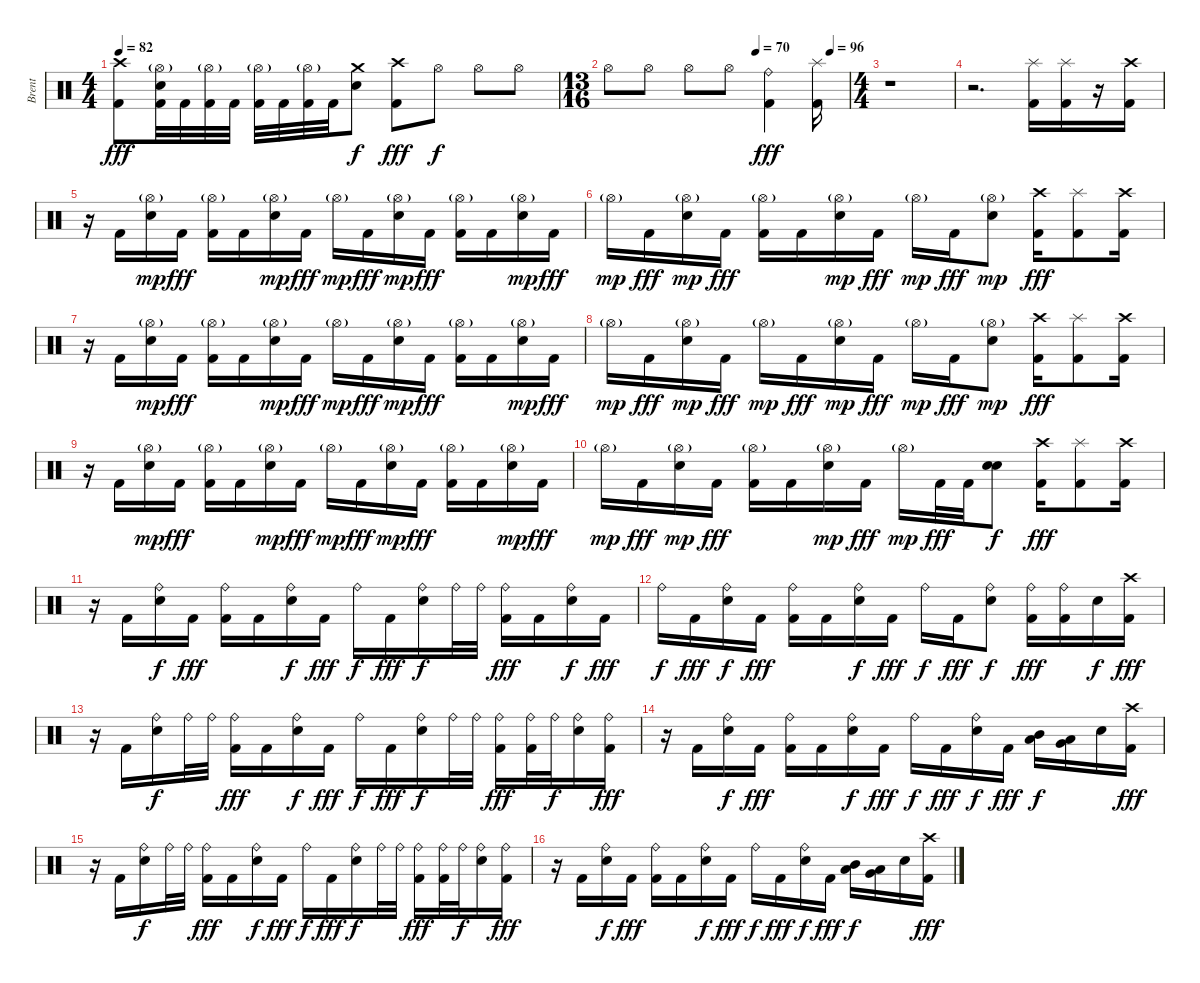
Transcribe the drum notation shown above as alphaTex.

\track ("Brent" "Brent") {instrument percussion}
\staff {score}
\articulation defaults
\ts (4 4)
\tempo 82
\clef neutral
\ks c
("Crash high (hit)" "Kick (hit) 2").8{dy fff} ("Hi-Hat (open)"{g} "Snare (hit) 2" "Kick (hit) 2").32 "Kick (hit) 2".32 ("Hi-Hat (open)"{g} "Kick (hit) 2").32 "Kick (hit) 2".32 ("Hi-Hat (open)"{g} "Kick (hit) 2").32 "Kick (hit) 2".32 ("Hi-Hat (open)"{g} "Kick (hit) 2").32 "Kick (hit) 2".32 ("Crash medium (hit)" "Snare (hit) 2").8{dy f} ("Crash high (hit)" "Kick (hit) 2").8{dy fff} "Hi-Hat (open)".8{dy f} "Hi-Hat (open)".8 "Hi-Hat (open)".8 |
\ts (13 16)
\tempo (70 0.6153846153846154)
\tempo (96 0.9230769230769231)
"Hi-Hat (open)".8 "Hi-Hat (open)".8 "Hi-Hat (open)".8 "Hi-Hat (open)".8 ("Ride (bell)" "Kick (hit) 2").4{dy fff} ("Splash (hit)" "Kick (hit) 2").16 |
\ts (4 4)
r.1 |
r.2{d} ("Splash (hit)" "Kick (hit) 2").16 ("Splash (hit)" "Kick (hit) 2").16 r.16 ("Crash high (hit)" "Kick (hit) 2").16 |
r.16 "Kick (hit) 2".16 ("Hi-Hat (open)"{g} "Snare (hit) 2").16{dy mp} "Kick (hit) 2".16{dy fff} ("Hi-Hat (open)"{g} "Kick (hit) 2").16 "Kick (hit) 2".16 ("Hi-Hat (open)"{g} "Snare (hit) 2").16{dy mp} "Kick (hit) 2".16{dy fff} "Hi-Hat (open)"{g}.16{dy mp} "Kick (hit) 2".16{dy fff} ("Hi-Hat (open)"{g} "Snare (hit) 2").16{dy mp} "Kick (hit) 2".16{dy fff} ("Hi-Hat (open)"{g} "Kick (hit) 2").16 "Kick (hit) 2".16 ("Hi-Hat (open)"{g} "Snare (hit) 2").16{dy mp} "Kick (hit) 2".16{dy fff} |
"Hi-Hat (open)"{g}.16{dy mp} "Kick (hit) 2".16{dy fff} ("Hi-Hat (open)"{g} "Snare (hit) 2").16{dy mp} "Kick (hit) 2".16{dy fff} ("Hi-Hat (open)"{g} "Kick (hit) 2").16 "Kick (hit) 2".16 ("Hi-Hat (open)"{g} "Snare (hit) 2").16{dy mp} "Kick (hit) 2".16{dy fff} "Hi-Hat (open)"{g}.16{dy mp} "Kick (hit) 2".16{dy fff} ("Hi-Hat (open)"{g} "Snare (hit) 2").8{dy mp} ("Crash high (hit)" "Kick (hit) 2").16{dy fff} ("Splash (hit)" "Kick (hit) 2").8 ("Crash high (hit)" "Kick (hit) 2").16 |
r.16 "Kick (hit) 2".16 ("Hi-Hat (open)"{g} "Snare (hit) 2").16{dy mp} "Kick (hit) 2".16{dy fff} ("Hi-Hat (open)"{g} "Kick (hit) 2").16 "Kick (hit) 2".16 ("Hi-Hat (open)"{g} "Snare (hit) 2").16{dy mp} "Kick (hit) 2".16{dy fff} "Hi-Hat (open)"{g}.16{dy mp} "Kick (hit) 2".16{dy fff} ("Hi-Hat (open)"{g} "Snare (hit) 2").16{dy mp} "Kick (hit) 2".16{dy fff} ("Hi-Hat (open)"{g} "Kick (hit) 2").16 "Kick (hit) 2".16 ("Hi-Hat (open)"{g} "Snare (hit) 2").16{dy mp} "Kick (hit) 2".16{dy fff} |
"Hi-Hat (open)"{g}.16{dy mp} "Kick (hit) 2".16{dy fff} ("Hi-Hat (open)"{g} "Snare (hit) 2").16{dy mp} "Kick (hit) 2".16{dy fff} "Hi-Hat (open)"{g}.16{dy mp} "Kick (hit) 2".16{dy fff} ("Hi-Hat (open)"{g} "Snare (hit) 2").16{dy mp} "Kick (hit) 2".16{dy fff} "Hi-Hat (open)"{g}.16{dy mp} "Kick (hit) 2".16{dy fff} ("Hi-Hat (open)"{g} "Snare (hit) 2").8{dy mp} ("Crash high (hit)" "Kick (hit) 2").16{dy fff} ("Splash (hit)" "Kick (hit) 2").8 ("Crash high (hit)" "Kick (hit) 2").16 |
r.16 "Kick (hit) 2".16 ("Hi-Hat (open)"{g} "Snare (hit) 2").16{dy mp} "Kick (hit) 2".16{dy fff} ("Hi-Hat (open)"{g} "Kick (hit) 2").16 "Kick (hit) 2".16 ("Hi-Hat (open)"{g} "Snare (hit) 2").16{dy mp} "Kick (hit) 2".16{dy fff} "Hi-Hat (open)"{g}.16{dy mp} "Kick (hit) 2".16{dy fff} ("Hi-Hat (open)"{g} "Snare (hit) 2").16{dy mp} "Kick (hit) 2".16{dy fff} ("Hi-Hat (open)"{g} "Kick (hit) 2").16 "Kick (hit) 2".16 ("Hi-Hat (open)"{g} "Snare (hit) 2").16{dy mp} "Kick (hit) 2".16{dy fff} |
"Hi-Hat (open)"{g}.16{dy mp} "Kick (hit) 2".16{dy fff} ("Hi-Hat (open)"{g} "Snare (hit) 2").16{dy mp} "Kick (hit) 2".16{dy fff} ("Hi-Hat (open)"{g} "Kick (hit) 2").16 "Kick (hit) 2".16 ("Hi-Hat (open)"{g} "Snare (hit) 2").16{dy mp} "Kick (hit) 2".16{dy fff} "Hi-Hat (open)"{g}.16{dy mp} "Kick (hit) 2".32{dy fff} "Kick (hit) 2".32 ("Snare (hit) 2" "Snare (hit) 2").8{dy f} ("Crash high (hit)" "Kick (hit) 2").16{dy fff} ("Splash (hit)" "Kick (hit) 2").8 ("Crash high (hit)" "Kick (hit) 2").16 |
r.16 "Kick (hit) 2".16 ("Ride (bell)" "Snare (hit) 2").16{dy f} "Kick (hit) 2".16{dy fff} ("Ride (bell)" "Kick (hit) 2").16 "Kick (hit) 2".16 ("Ride (bell)" "Snare (hit) 2").16{dy f} "Kick (hit) 2".16{dy fff} "Ride (bell)".16{dy f} "Kick (hit) 2".16{dy fff} ("Ride (bell)" "Snare (hit) 2").16{dy f} "Ride (bell)".32 "Ride (bell)".32 ("Ride (bell)" "Kick (hit) 2").16{dy fff} "Kick (hit) 2".16 ("Ride (bell)" "Snare (hit) 2").16{dy f} "Kick (hit) 2".16{dy fff} |
"Ride (bell)".16{dy f} "Kick (hit) 2".16{dy fff} ("Ride (bell)" "Snare (hit) 2").16{dy f} "Kick (hit) 2".16{dy fff} ("Ride (bell)" "Kick (hit) 2").16 "Kick (hit) 2".16 ("Ride (bell)" "Snare (hit) 2").16{dy f} "Kick (hit) 2".16{dy fff} "Ride (bell)".16{dy f} "Kick (hit) 2".16{dy fff} ("Ride (bell)" "Snare (hit) 2").8{dy f} ("Ride (bell)" "Kick (hit) 2").16{dy fff} ("Ride (bell)" "Kick (hit) 2").16 "Snare (hit) 2".16{dy f} ("Crash high (hit)" "Kick (hit) 2").16{dy fff} |
r.16 "Kick (hit) 2".16 ("Ride (bell)" "Snare (hit) 2").16{dy f} "Ride (bell)".32 "Ride (bell)".32 ("Ride (bell)" "Kick (hit) 2").16{dy fff} "Kick (hit) 2".16 ("Ride (bell)" "Snare (hit) 2").16{dy f} "Kick (hit) 2".16{dy fff} "Ride (bell)".16{dy f} "Kick (hit) 2".16{dy fff} ("Ride (bell)" "Snare (hit) 2").16{dy f} "Ride (bell)".32 "Ride (bell)".32 ("Ride (bell)" "Kick (hit) 2").16{dy fff} ("Ride (bell)" "Kick (hit) 2").32 "Ride (bell)".32{dy f} ("Ride (bell)" "Snare (hit) 2").16 ("Ride (bell)" "Kick (hit) 2").16{dy fff} |
r.16 "Kick (hit) 2".16 ("Ride (bell)" "Snare (hit) 2").16{dy f} "Kick (hit) 2".16{dy fff} ("Ride (bell)" "Kick (hit) 2").16 "Kick (hit) 2".16 ("Ride (bell)" "Snare (hit) 2").16{dy f} "Kick (hit) 2".16{dy fff} "Ride (bell)".16{dy f} "Kick (hit) 2".16{dy fff} ("Ride (bell)" "Snare (hit) 2").16{dy f} "Kick (hit) 2".16{dy fff} ("Mid Tom (hit)" "Low Tom (hit)").16{dy f} ("Low Tom (hit)" "Very Low Tom (hit)").16 "Snare (hit) 2".16 ("Crash high (hit)" "Kick (hit) 2").16{dy fff} |
r.16 "Kick (hit) 2".16 ("Ride (bell)" "Snare (hit) 2").16{dy f} "Ride (bell)".32 "Ride (bell)".32 ("Ride (bell)" "Kick (hit) 2").16{dy fff} "Kick (hit) 2".16 ("Ride (bell)" "Snare (hit) 2").16{dy f} "Kick (hit) 2".16{dy fff} "Ride (bell)".16{dy f} "Kick (hit) 2".16{dy fff} ("Ride (bell)" "Snare (hit) 2").16{dy f} "Ride (bell)".32 "Ride (bell)".32 ("Ride (bell)" "Kick (hit) 2").16{dy fff} ("Ride (bell)" "Kick (hit) 2").32 "Ride (bell)".32{dy f} ("Ride (bell)" "Snare (hit) 2").16 ("Ride (bell)" "Kick (hit) 2").16{dy fff} |
r.16 "Kick (hit) 2".16 ("Ride (bell)" "Snare (hit) 2").16{dy f} "Kick (hit) 2".16{dy fff} ("Ride (bell)" "Kick (hit) 2").16 "Kick (hit) 2".16 ("Ride (bell)" "Snare (hit) 2").16{dy f} "Kick (hit) 2".16{dy fff} "Ride (bell)".16{dy f} "Kick (hit) 2".16{dy fff} ("Ride (bell)" "Snare (hit) 2").16{dy f} "Kick (hit) 2".16{dy fff} ("Mid Tom (hit)" "Low Tom (hit)").16{dy f} ("Low Tom (hit)" "Very Low Tom (hit)").16 "Snare (hit) 2".16 ("Crash high (hit)" "Kick (hit) 2").16{dy fff}
